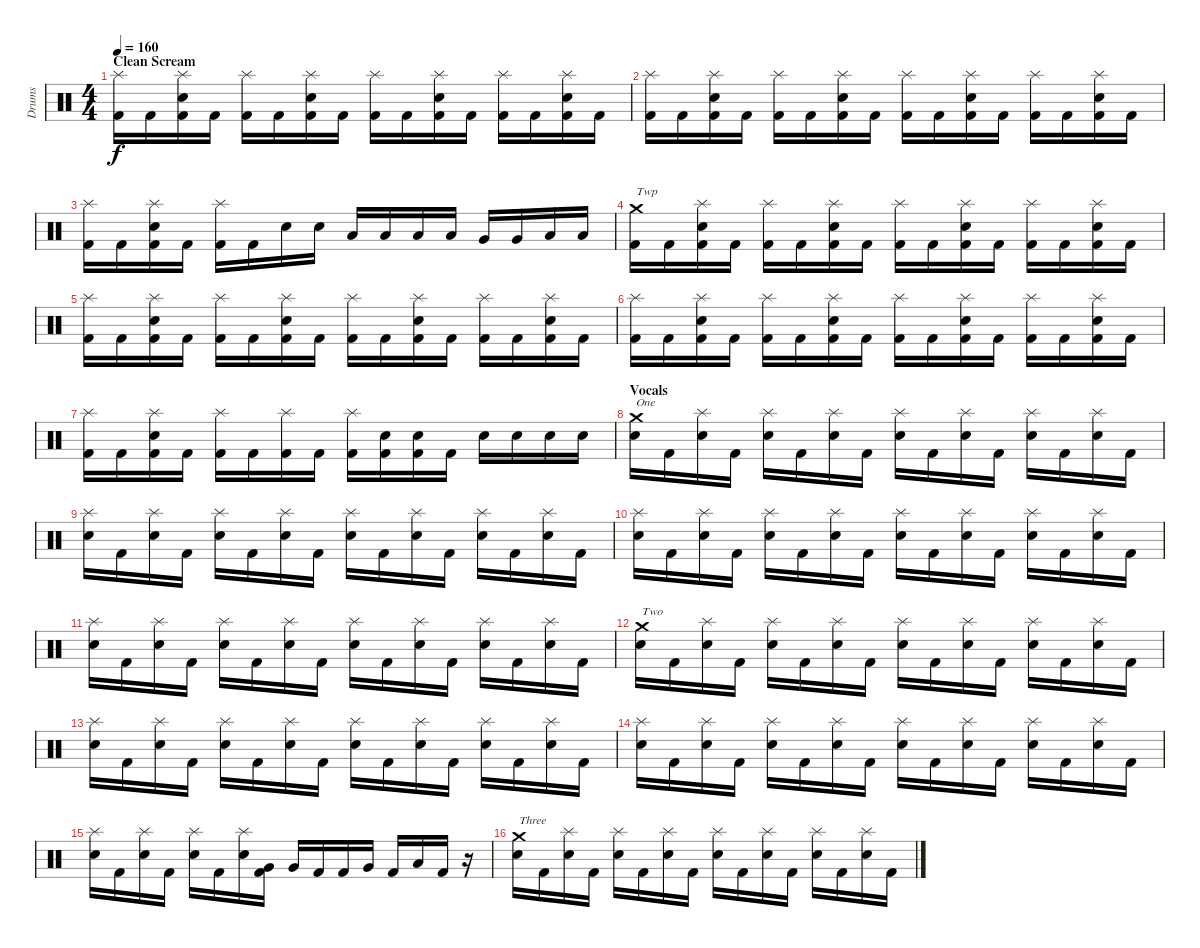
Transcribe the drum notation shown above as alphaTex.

\track ("Drums" "Drums") {instrument percussion}
\staff {score}
\articulation defaults
\ts (4 4)
\section ("" "Clean Scream")
\tempo 160
\clef neutral
\ks c
("Splash (hit)" "Kick (hit) 2").16{dy f} "Kick (hit) 2".16 ("Splash (hit)" "Snare (hit) 2" "Kick (hit) 2").16 "Kick (hit) 2".16 ("Splash (hit)" "Kick (hit) 2").16 "Kick (hit) 2".16 ("Splash (hit)" "Snare (hit) 2" "Kick (hit) 2").16 "Kick (hit) 2".16 ("Splash (hit)" "Kick (hit) 2").16 "Kick (hit) 2".16 ("Splash (hit)" "Snare (hit) 2" "Kick (hit) 2").16 "Kick (hit) 2".16 ("Splash (hit)" "Kick (hit) 2").16 "Kick (hit) 2".16 ("Splash (hit)" "Snare (hit) 2" "Kick (hit) 2").16 "Kick (hit) 2".16 |
("Splash (hit)" "Kick (hit) 2").16 "Kick (hit) 2".16 ("Splash (hit)" "Snare (hit) 2" "Kick (hit) 2").16 "Kick (hit) 2".16 ("Splash (hit)" "Kick (hit) 2").16 "Kick (hit) 2".16 ("Splash (hit)" "Snare (hit) 2" "Kick (hit) 2").16 "Kick (hit) 2".16 ("Splash (hit)" "Kick (hit) 2").16 "Kick (hit) 2".16 ("Splash (hit)" "Snare (hit) 2" "Kick (hit) 2").16 "Kick (hit) 2".16 ("Splash (hit)" "Kick (hit) 2").16 "Kick (hit) 2".16 ("Splash (hit)" "Snare (hit) 2" "Kick (hit) 2").16 "Kick (hit) 2".16 |
("Splash (hit)" "Kick (hit) 2").16 "Kick (hit) 2".16 ("Splash (hit)" "Snare (hit) 2" "Kick (hit) 2").16 "Kick (hit) 2".16 ("Splash (hit)" "Kick (hit) 2").16 "Kick (hit) 2".16 "Snare (hit) 2".16 "Snare (hit) 2".16 "Low Tom (hit)".16 "Low Tom (hit)".16 "Low Tom (hit)".16 "Low Tom (hit)".16 "Very Low Tom (hit)".16 "Very Low Tom (hit)".16 "Low Floor Tom (hit)".16 "Low Floor Tom (hit)".16 |
("Crash medium (hit)" "Kick (hit) 2").16{txt "Twp"} "Kick (hit) 2".16 ("Splash (hit)" "Snare (hit) 2" "Kick (hit) 2").16 "Kick (hit) 2".16 ("Splash (hit)" "Kick (hit) 2").16 "Kick (hit) 2".16 ("Splash (hit)" "Snare (hit) 2" "Kick (hit) 2").16 "Kick (hit) 2".16 ("Splash (hit)" "Kick (hit) 2").16 "Kick (hit) 2".16 ("Splash (hit)" "Snare (hit) 2" "Kick (hit) 2").16 "Kick (hit) 2".16 ("Splash (hit)" "Kick (hit) 2").16 "Kick (hit) 2".16 ("Splash (hit)" "Snare (hit) 2" "Kick (hit) 2").16 "Kick (hit) 2".16 |
("Splash (hit)" "Kick (hit) 2").16 "Kick (hit) 2".16 ("Splash (hit)" "Snare (hit) 2" "Kick (hit) 2").16 "Kick (hit) 2".16 ("Splash (hit)" "Kick (hit) 2").16 "Kick (hit) 2".16 ("Splash (hit)" "Snare (hit) 2" "Kick (hit) 2").16 "Kick (hit) 2".16 ("Splash (hit)" "Kick (hit) 2").16 "Kick (hit) 2".16 ("Splash (hit)" "Snare (hit) 2" "Kick (hit) 2").16 "Kick (hit) 2".16 ("Splash (hit)" "Kick (hit) 2").16 "Kick (hit) 2".16 ("Splash (hit)" "Snare (hit) 2" "Kick (hit) 2").16 "Kick (hit) 2".16 |
("Splash (hit)" "Kick (hit) 2").16 "Kick (hit) 2".16 ("Splash (hit)" "Snare (hit) 2" "Kick (hit) 2").16 "Kick (hit) 2".16 ("Splash (hit)" "Kick (hit) 2").16 "Kick (hit) 2".16 ("Splash (hit)" "Snare (hit) 2" "Kick (hit) 2").16 "Kick (hit) 2".16 ("Splash (hit)" "Kick (hit) 2").16 "Kick (hit) 2".16 ("Splash (hit)" "Snare (hit) 2" "Kick (hit) 2").16 "Kick (hit) 2".16 ("Splash (hit)" "Kick (hit) 2").16 "Kick (hit) 2".16 ("Splash (hit)" "Snare (hit) 2" "Kick (hit) 2").16 "Kick (hit) 2".16 |
("Splash (hit)" "Kick (hit) 2").16 "Kick (hit) 2".16 ("Splash (hit)" "Snare (hit) 2" "Kick (hit) 2").16 "Kick (hit) 2".16 ("Splash (hit)" "Kick (hit) 2").16 "Kick (hit) 2".16 ("Splash (hit)" "Kick (hit) 2").16 "Kick (hit) 2".16 ("Splash (hit)" "Kick (hit) 2").16 ("Snare (hit) 2" "Kick (hit) 2").16 ("Snare (hit) 2" "Kick (hit) 2").16 "Kick (hit) 2".16 "Snare (hit) 2".16 "Snare (hit) 2".16 "Snare (hit) 2".16 "Snare (hit) 2".16 |
\section ("" "Vocals")
("Crash medium (hit)" "Snare (hit) 2").16{txt "One"} "Kick (hit) 2".16 ("Splash (hit)" "Snare (hit) 2").16 "Kick (hit) 2".16 ("Splash (hit)" "Snare (hit) 2").16 "Kick (hit) 2".16 ("Splash (hit)" "Snare (hit) 2").16 "Kick (hit) 2".16 ("Splash (hit)" "Snare (hit) 2").16 "Kick (hit) 2".16 ("Splash (hit)" "Snare (hit) 2").16 "Kick (hit) 2".16 ("Splash (hit)" "Snare (hit) 2").16 "Kick (hit) 2".16 ("Splash (hit)" "Snare (hit) 2").16 "Kick (hit) 2".16 |
("Splash (hit)" "Snare (hit) 2").16 "Kick (hit) 2".16 ("Splash (hit)" "Snare (hit) 2").16 "Kick (hit) 2".16 ("Splash (hit)" "Snare (hit) 2").16 "Kick (hit) 2".16 ("Splash (hit)" "Snare (hit) 2").16 "Kick (hit) 2".16 ("Splash (hit)" "Snare (hit) 2").16 "Kick (hit) 2".16 ("Splash (hit)" "Snare (hit) 2").16 "Kick (hit) 2".16 ("Splash (hit)" "Snare (hit) 2").16 "Kick (hit) 2".16 ("Splash (hit)" "Snare (hit) 2").16 "Kick (hit) 2".16 |
("Splash (hit)" "Snare (hit) 2").16 "Kick (hit) 2".16 ("Splash (hit)" "Snare (hit) 2").16 "Kick (hit) 2".16 ("Splash (hit)" "Snare (hit) 2").16 "Kick (hit) 2".16 ("Splash (hit)" "Snare (hit) 2").16 "Kick (hit) 2".16 ("Splash (hit)" "Snare (hit) 2").16 "Kick (hit) 2".16 ("Splash (hit)" "Snare (hit) 2").16 "Kick (hit) 2".16 ("Splash (hit)" "Snare (hit) 2").16 "Kick (hit) 2".16 ("Splash (hit)" "Snare (hit) 2").16 "Kick (hit) 2".16 |
("Splash (hit)" "Snare (hit) 2").16 "Kick (hit) 2".16 ("Splash (hit)" "Snare (hit) 2").16 "Kick (hit) 2".16 ("Splash (hit)" "Snare (hit) 2").16 "Kick (hit) 2".16 ("Splash (hit)" "Snare (hit) 2").16 "Kick (hit) 2".16 ("Splash (hit)" "Snare (hit) 2").16 "Kick (hit) 2".16 ("Splash (hit)" "Snare (hit) 2").16 "Kick (hit) 2".16 ("Splash (hit)" "Snare (hit) 2").16 "Kick (hit) 2".16 ("Splash (hit)" "Snare (hit) 2").16 "Kick (hit) 2".16 |
("Crash medium (hit)" "Snare (hit) 2").16{txt "Two"} "Kick (hit) 2".16 ("Splash (hit)" "Snare (hit) 2").16 "Kick (hit) 2".16 ("Splash (hit)" "Snare (hit) 2").16 "Kick (hit) 2".16 ("Splash (hit)" "Snare (hit) 2").16 "Kick (hit) 2".16 ("Splash (hit)" "Snare (hit) 2").16 "Kick (hit) 2".16 ("Splash (hit)" "Snare (hit) 2").16 "Kick (hit) 2".16 ("Splash (hit)" "Snare (hit) 2").16 "Kick (hit) 2".16 ("Splash (hit)" "Snare (hit) 2").16 "Kick (hit) 2".16 |
("Splash (hit)" "Snare (hit) 2").16 "Kick (hit) 2".16 ("Splash (hit)" "Snare (hit) 2").16 "Kick (hit) 2".16 ("Splash (hit)" "Snare (hit) 2").16 "Kick (hit) 2".16 ("Splash (hit)" "Snare (hit) 2").16 "Kick (hit) 2".16 ("Splash (hit)" "Snare (hit) 2").16 "Kick (hit) 2".16 ("Splash (hit)" "Snare (hit) 2").16 "Kick (hit) 2".16 ("Splash (hit)" "Snare (hit) 2").16 "Kick (hit) 2".16 ("Splash (hit)" "Snare (hit) 2").16 "Kick (hit) 2".16 |
("Splash (hit)" "Snare (hit) 2").16 "Kick (hit) 2".16 ("Splash (hit)" "Snare (hit) 2").16 "Kick (hit) 2".16 ("Splash (hit)" "Snare (hit) 2").16 "Kick (hit) 2".16 ("Splash (hit)" "Snare (hit) 2").16 "Kick (hit) 2".16 ("Splash (hit)" "Snare (hit) 2").16 "Kick (hit) 2".16 ("Splash (hit)" "Snare (hit) 2").16 "Kick (hit) 2".16 ("Splash (hit)" "Snare (hit) 2").16 "Kick (hit) 2".16 ("Splash (hit)" "Snare (hit) 2").16 "Kick (hit) 2".16 |
("Splash (hit)" "Snare (hit) 2").16 "Kick (hit) 2".16 ("Splash (hit)" "Snare (hit) 2").16 "Kick (hit) 2".16 ("Splash (hit)" "Snare (hit) 2").16 "Kick (hit) 2".16 ("Splash (hit)" "Snare (hit) 2").16 ("Very Low Tom (hit)" "Kick (hit) 2").16 "Very Low Tom (hit)".16 "Kick (hit) 2".16 "Kick (hit) 2".16 "Very Low Tom (hit)".16 "Kick (hit) 2".16 "Low Floor Tom (hit)".16 "Kick (hit) 2".16 r.16 |
("Crash medium (hit)" "Snare (hit) 2").16{txt "Three"} "Kick (hit) 2".16 ("Splash (hit)" "Snare (hit) 2").16 "Kick (hit) 2".16 ("Splash (hit)" "Snare (hit) 2").16 "Kick (hit) 2".16 ("Splash (hit)" "Snare (hit) 2").16 "Kick (hit) 2".16 ("Splash (hit)" "Snare (hit) 2").16 "Kick (hit) 2".16 ("Splash (hit)" "Snare (hit) 2").16 "Kick (hit) 2".16 ("Splash (hit)" "Snare (hit) 2").16 "Kick (hit) 2".16 ("Splash (hit)" "Snare (hit) 2").16 "Kick (hit) 2".16
